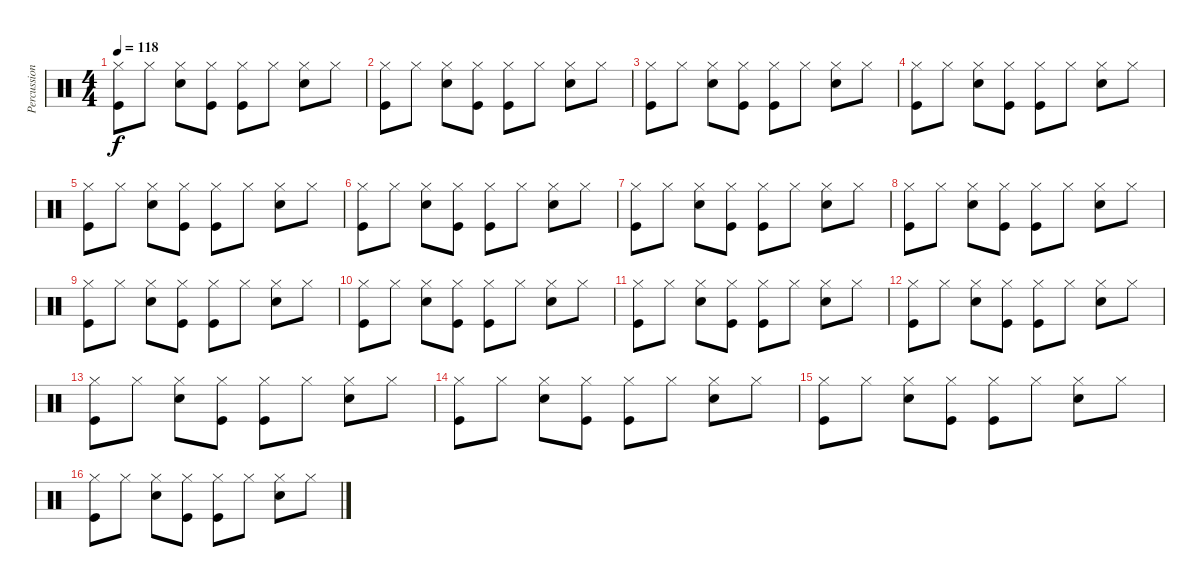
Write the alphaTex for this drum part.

\track ("Percussions" "Percussion") {instrument percussion}
\staff {score}
\articulation defaults
\ts (4 4)
\tempo 118
\clef neutral
\ks c
("Hi-Hat (closed)" "Kick (hit)").8{dy f} "Hi-Hat (closed)".8 ("Hi-Hat (closed)" "Snare (hit) 2").8 ("Hi-Hat (closed)" "Kick (hit)").8 ("Hi-Hat (closed)" "Kick (hit)").8 "Hi-Hat (closed)".8 ("Hi-Hat (closed)" "Snare (hit) 2").8 "Hi-Hat (closed)".8 |
("Hi-Hat (closed)" "Kick (hit)").8 "Hi-Hat (closed)".8 ("Hi-Hat (closed)" "Snare (hit) 2").8 ("Hi-Hat (closed)" "Kick (hit)").8 ("Hi-Hat (closed)" "Kick (hit)").8 "Hi-Hat (closed)".8 ("Hi-Hat (closed)" "Snare (hit) 2").8 "Hi-Hat (closed)".8 |
("Hi-Hat (closed)" "Kick (hit)").8 "Hi-Hat (closed)".8 ("Hi-Hat (closed)" "Snare (hit) 2").8 ("Hi-Hat (closed)" "Kick (hit)").8 ("Hi-Hat (closed)" "Kick (hit)").8 "Hi-Hat (closed)".8 ("Hi-Hat (closed)" "Snare (hit) 2").8 "Hi-Hat (closed)".8 |
("Hi-Hat (closed)" "Kick (hit)").8 "Hi-Hat (closed)".8 ("Hi-Hat (closed)" "Snare (hit) 2").8 ("Hi-Hat (closed)" "Kick (hit)").8 ("Hi-Hat (closed)" "Kick (hit)").8 "Hi-Hat (closed)".8 ("Hi-Hat (closed)" "Snare (hit) 2").8 "Hi-Hat (closed)".8 |
("Hi-Hat (closed)" "Kick (hit)").8 "Hi-Hat (closed)".8 ("Hi-Hat (closed)" "Snare (hit) 2").8 ("Hi-Hat (closed)" "Kick (hit)").8 ("Hi-Hat (closed)" "Kick (hit)").8 "Hi-Hat (closed)".8 ("Hi-Hat (closed)" "Snare (hit) 2").8 "Hi-Hat (closed)".8 |
("Hi-Hat (closed)" "Kick (hit)").8 "Hi-Hat (closed)".8 ("Hi-Hat (closed)" "Snare (hit) 2").8 ("Hi-Hat (closed)" "Kick (hit)").8 ("Hi-Hat (closed)" "Kick (hit)").8 "Hi-Hat (closed)".8 ("Hi-Hat (closed)" "Snare (hit) 2").8 "Hi-Hat (closed)".8 |
("Hi-Hat (closed)" "Kick (hit)").8 "Hi-Hat (closed)".8 ("Hi-Hat (closed)" "Snare (hit) 2").8 ("Hi-Hat (closed)" "Kick (hit)").8 ("Hi-Hat (closed)" "Kick (hit)").8 "Hi-Hat (closed)".8 ("Hi-Hat (closed)" "Snare (hit) 2").8 "Hi-Hat (closed)".8 |
("Hi-Hat (closed)" "Kick (hit)").8 "Hi-Hat (closed)".8 ("Hi-Hat (closed)" "Snare (hit) 2").8 ("Hi-Hat (closed)" "Kick (hit)").8 ("Hi-Hat (closed)" "Kick (hit)").8 "Hi-Hat (closed)".8 ("Hi-Hat (closed)" "Snare (hit) 2").8 "Hi-Hat (closed)".8 |
("Hi-Hat (closed)" "Kick (hit)").8 "Hi-Hat (closed)".8 ("Hi-Hat (closed)" "Snare (hit) 2").8 ("Hi-Hat (closed)" "Kick (hit)").8 ("Hi-Hat (closed)" "Kick (hit)").8 "Hi-Hat (closed)".8 ("Hi-Hat (closed)" "Snare (hit) 2").8 "Hi-Hat (closed)".8 |
("Hi-Hat (closed)" "Kick (hit)").8 "Hi-Hat (closed)".8 ("Hi-Hat (closed)" "Snare (hit) 2").8 ("Hi-Hat (closed)" "Kick (hit)").8 ("Hi-Hat (closed)" "Kick (hit)").8 "Hi-Hat (closed)".8 ("Hi-Hat (closed)" "Snare (hit) 2").8 "Hi-Hat (closed)".8 |
("Hi-Hat (closed)" "Kick (hit)").8 "Hi-Hat (closed)".8 ("Hi-Hat (closed)" "Snare (hit) 2").8 ("Hi-Hat (closed)" "Kick (hit)").8 ("Hi-Hat (closed)" "Kick (hit)").8 "Hi-Hat (closed)".8 ("Hi-Hat (closed)" "Snare (hit) 2").8 "Hi-Hat (closed)".8 |
("Hi-Hat (closed)" "Kick (hit)").8 "Hi-Hat (closed)".8 ("Hi-Hat (closed)" "Snare (hit) 2").8 ("Hi-Hat (closed)" "Kick (hit)").8 ("Hi-Hat (closed)" "Kick (hit)").8 "Hi-Hat (closed)".8 ("Hi-Hat (closed)" "Snare (hit) 2").8 "Hi-Hat (closed)".8 |
("Hi-Hat (closed)" "Kick (hit)").8 "Hi-Hat (closed)".8 ("Hi-Hat (closed)" "Snare (hit) 2").8 ("Hi-Hat (closed)" "Kick (hit)").8 ("Hi-Hat (closed)" "Kick (hit)").8 "Hi-Hat (closed)".8 ("Hi-Hat (closed)" "Snare (hit) 2").8 "Hi-Hat (closed)".8 |
("Hi-Hat (closed)" "Kick (hit)").8 "Hi-Hat (closed)".8 ("Hi-Hat (closed)" "Snare (hit) 2").8 ("Hi-Hat (closed)" "Kick (hit)").8 ("Hi-Hat (closed)" "Kick (hit)").8 "Hi-Hat (closed)".8 ("Hi-Hat (closed)" "Snare (hit) 2").8 "Hi-Hat (closed)".8 |
("Hi-Hat (closed)" "Kick (hit)").8 "Hi-Hat (closed)".8 ("Hi-Hat (closed)" "Snare (hit) 2").8 ("Hi-Hat (closed)" "Kick (hit)").8 ("Hi-Hat (closed)" "Kick (hit)").8 "Hi-Hat (closed)".8 ("Hi-Hat (closed)" "Snare (hit) 2").8 "Hi-Hat (closed)".8 |
("Hi-Hat (closed)" "Kick (hit)").8 "Hi-Hat (closed)".8 ("Hi-Hat (closed)" "Snare (hit) 2").8 ("Hi-Hat (closed)" "Kick (hit)").8 ("Hi-Hat (closed)" "Kick (hit)").8 "Hi-Hat (closed)".8 ("Hi-Hat (closed)" "Snare (hit) 2").8 "Hi-Hat (closed)".8
